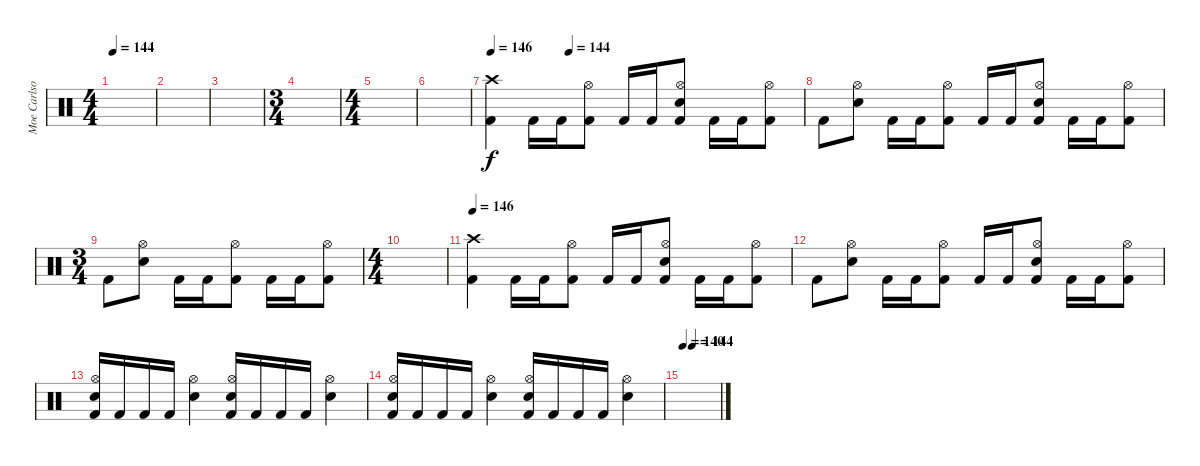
\track ("Moe Carlson" "Moe Carlso") {solo instrument percussion}
\staff {score}
\articulation defaults
\ts (4 4)
\tempo 144
\clef neutral
\ks c
|
|
|
\ts (3 4)
|
\ts (4 4)
|
|
\tempo 140
\tempo (144 0.25)
\tempo 146
("Crash high (hit)" "Kick (hit) 2").4 "Kick (hit) 2".16 "Kick (hit) 2".16 ("Hi-Hat (open)" "Kick (hit) 2").8 "Kick (hit) 2".16 "Kick (hit) 2".16 ("Hi-Hat (open)" "Electric Snare (hit)" "Kick (hit) 2").8 "Kick (hit) 2".16 "Kick (hit) 2".16 ("Hi-Hat (open)" "Kick (hit) 2").8 |
"Kick (hit) 2".8 ("Hi-Hat (open)" "Electric Snare (hit)").8 "Kick (hit) 2".16 "Kick (hit) 2".16 ("Hi-Hat (open)" "Kick (hit) 2").8 "Kick (hit) 2".16 "Kick (hit) 2".16 ("Hi-Hat (open)" "Electric Snare (hit)" "Kick (hit) 2").8 "Kick (hit) 2".16 "Kick (hit) 2".16 ("Hi-Hat (open)" "Kick (hit) 2").8 |
\ts (3 4)
"Kick (hit) 2".8 ("Hi-Hat (open)" "Electric Snare (hit)").8 "Kick (hit) 2".16 "Kick (hit) 2".16 ("Hi-Hat (open)" "Kick (hit) 2").8 "Kick (hit) 2".16 "Kick (hit) 2".16 ("Hi-Hat (open)" "Kick (hit) 2").8 |
\ts (4 4)
|
\tempo 146
("Crash high (hit)" "Kick (hit) 2").4 "Kick (hit) 2".16 "Kick (hit) 2".16 ("Hi-Hat (open)" "Kick (hit) 2").8 "Kick (hit) 2".16 "Kick (hit) 2".16 ("Hi-Hat (open)" "Electric Snare (hit)" "Kick (hit) 2").8 "Kick (hit) 2".16 "Kick (hit) 2".16 ("Hi-Hat (open)" "Kick (hit) 2").8 |
"Kick (hit) 2".8 ("Hi-Hat (open)" "Electric Snare (hit)").8 "Kick (hit) 2".16 "Kick (hit) 2".16 ("Hi-Hat (open)" "Kick (hit) 2").8 "Kick (hit) 2".16 "Kick (hit) 2".16 ("Hi-Hat (open)" "Electric Snare (hit)" "Kick (hit) 2").8 "Kick (hit) 2".16 "Kick (hit) 2".16 ("Hi-Hat (open)" "Kick (hit) 2").8 |
("Hi-Hat (open)" "Electric Snare (hit)" "Kick (hit) 2").16 "Kick (hit) 2".16 "Kick (hit) 2".16 "Kick (hit) 2".16 ("Hi-Hat (open)" "Electric Snare (hit)").4 ("Hi-Hat (open)" "Electric Snare (hit)" "Kick (hit) 2").16 "Kick (hit) 2".16 "Kick (hit) 2".16 "Kick (hit) 2".16 ("Hi-Hat (open)" "Electric Snare (hit)").4 |
("Hi-Hat (open)" "Electric Snare (hit)" "Kick (hit) 2").16 "Kick (hit) 2".16 "Kick (hit) 2".16 "Kick (hit) 2".16 ("Hi-Hat (open)" "Electric Snare (hit)").4 ("Hi-Hat (open)" "Electric Snare (hit)" "Kick (hit) 2").16 "Kick (hit) 2".16 "Kick (hit) 2".16 "Kick (hit) 2".16 ("Hi-Hat (open)" "Electric Snare (hit)").4 |
\tempo 140
\tempo (144 0.25)
